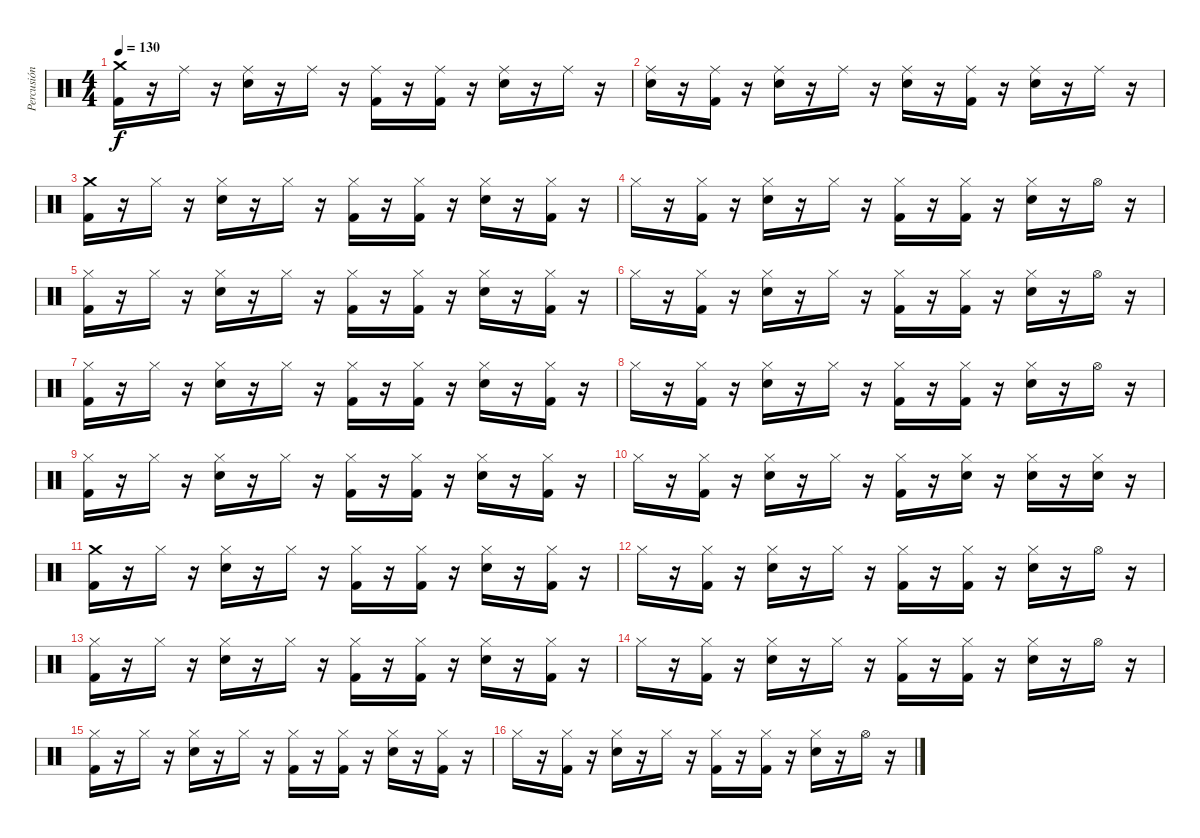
\track ("Percusión" "Percusión") {instrument percussion}
\staff {score}
\articulation defaults
\ts (4 4)
\tempo 130
\clef neutral
\ks c
("Crash medium (hit)" "Kick (hit) 2").16{dy f} r.16 "Ride (middle)".16 r.16 ("Ride (middle)" "Electric Snare (hit)").16 r.16 "Ride (middle)".16 r.16 ("Ride (middle)" "Kick (hit) 2").16 r.16 ("Ride (middle)" "Kick (hit) 2").16 r.16 ("Ride (middle)" "Electric Snare (hit)").16 r.16 "Ride (middle)".16 r.16 |
("Ride (middle)" "Electric Snare (hit)").16 r.16 ("Ride (middle)" "Kick (hit) 2").16 r.16 ("Ride (middle)" "Electric Snare (hit)").16 r.16 "Ride (middle)".16 r.16 ("Ride (middle)" "Electric Snare (hit)").16 r.16 ("Ride (middle)" "Kick (hit) 2").16 r.16 ("Ride (middle)" "Electric Snare (hit)").16 r.16 "Ride (middle)".16 r.16 |
("Crash medium (hit)" "Kick (hit) 2").16 r.16 "Hi-Hat (closed)".16 r.16 ("Hi-Hat (closed)" "Electric Snare (hit)").16 r.16 "Hi-Hat (closed)".16 r.16 ("Hi-Hat (closed)" "Kick (hit) 2").16 r.16 ("Hi-Hat (closed)" "Kick (hit) 2").16 r.16 ("Hi-Hat (closed)" "Electric Snare (hit)").16 r.16 ("Hi-Hat (closed)" "Kick (hit) 2").16 r.16 |
"Hi-Hat (closed)".16 r.16 ("Hi-Hat (closed)" "Kick (hit) 2").16 r.16 ("Hi-Hat (closed)" "Electric Snare (hit)").16 r.16 "Hi-Hat (closed)".16 r.16 ("Hi-Hat (closed)" "Kick (hit) 2").16 r.16 ("Hi-Hat (closed)" "Kick (hit) 2").16 r.16 ("Hi-Hat (closed)" "Electric Snare (hit)").16 r.16 "Hi-Hat (open)".16 r.16 |
("Hi-Hat (closed)" "Kick (hit) 2").16 r.16 "Hi-Hat (closed)".16 r.16 ("Hi-Hat (closed)" "Electric Snare (hit)").16 r.16 "Hi-Hat (closed)".16 r.16 ("Hi-Hat (closed)" "Kick (hit) 2").16 r.16 ("Hi-Hat (closed)" "Kick (hit) 2").16 r.16 ("Hi-Hat (closed)" "Electric Snare (hit)").16 r.16 ("Hi-Hat (closed)" "Kick (hit) 2").16 r.16 |
"Hi-Hat (closed)".16 r.16 ("Hi-Hat (closed)" "Kick (hit) 2").16 r.16 ("Hi-Hat (closed)" "Electric Snare (hit)").16 r.16 "Hi-Hat (closed)".16 r.16 ("Hi-Hat (closed)" "Kick (hit) 2").16 r.16 ("Hi-Hat (closed)" "Kick (hit) 2").16 r.16 ("Hi-Hat (closed)" "Electric Snare (hit)").16 r.16 "Hi-Hat (open)".16 r.16 |
("Hi-Hat (closed)" "Kick (hit) 2").16 r.16 "Hi-Hat (closed)".16 r.16 ("Hi-Hat (closed)" "Electric Snare (hit)").16 r.16 "Hi-Hat (closed)".16 r.16 ("Hi-Hat (closed)" "Kick (hit) 2").16 r.16 ("Hi-Hat (closed)" "Kick (hit) 2").16 r.16 ("Hi-Hat (closed)" "Electric Snare (hit)").16 r.16 ("Hi-Hat (closed)" "Kick (hit) 2").16 r.16 |
"Hi-Hat (closed)".16 r.16 ("Hi-Hat (closed)" "Kick (hit) 2").16 r.16 ("Hi-Hat (closed)" "Electric Snare (hit)").16 r.16 "Hi-Hat (closed)".16 r.16 ("Hi-Hat (closed)" "Kick (hit) 2").16 r.16 ("Hi-Hat (closed)" "Kick (hit) 2").16 r.16 ("Hi-Hat (closed)" "Electric Snare (hit)").16 r.16 "Hi-Hat (open)".16 r.16 |
("Hi-Hat (closed)" "Kick (hit) 2").16 r.16 "Hi-Hat (closed)".16 r.16 ("Hi-Hat (closed)" "Electric Snare (hit)").16 r.16 "Hi-Hat (closed)".16 r.16 ("Hi-Hat (closed)" "Kick (hit) 2").16 r.16 ("Hi-Hat (closed)" "Kick (hit) 2").16 r.16 ("Hi-Hat (closed)" "Electric Snare (hit)").16 r.16 ("Hi-Hat (closed)" "Kick (hit) 2").16 r.16 |
"Hi-Hat (closed)".16 r.16 ("Hi-Hat (closed)" "Kick (hit) 2").16 r.16 ("Hi-Hat (closed)" "Electric Snare (hit)").16 r.16 "Hi-Hat (closed)".16 r.16 ("Hi-Hat (closed)" "Kick (hit) 2").16 r.16 ("Hi-Hat (closed)" "Electric Snare (hit)").16 r.16 ("Hi-Hat (closed)" "Electric Snare (hit)").16 r.16 ("Hi-Hat (closed)" "Electric Snare (hit)").16 r.16 |
("Crash medium (hit)" "Kick (hit) 2").16 r.16 "Hi-Hat (closed)".16 r.16 ("Hi-Hat (closed)" "Electric Snare (hit)").16 r.16 "Hi-Hat (closed)".16 r.16 ("Hi-Hat (closed)" "Kick (hit) 2").16 r.16 ("Hi-Hat (closed)" "Kick (hit) 2").16 r.16 ("Hi-Hat (closed)" "Electric Snare (hit)").16 r.16 ("Hi-Hat (closed)" "Kick (hit) 2").16 r.16 |
"Hi-Hat (closed)".16 r.16 ("Hi-Hat (closed)" "Kick (hit) 2").16 r.16 ("Hi-Hat (closed)" "Electric Snare (hit)").16 r.16 "Hi-Hat (closed)".16 r.16 ("Hi-Hat (closed)" "Kick (hit) 2").16 r.16 ("Hi-Hat (closed)" "Kick (hit) 2").16 r.16 ("Hi-Hat (closed)" "Electric Snare (hit)").16 r.16 "Hi-Hat (open)".16 r.16 |
("Hi-Hat (closed)" "Kick (hit) 2").16 r.16 "Hi-Hat (closed)".16 r.16 ("Hi-Hat (closed)" "Electric Snare (hit)").16 r.16 "Hi-Hat (closed)".16 r.16 ("Hi-Hat (closed)" "Kick (hit) 2").16 r.16 ("Hi-Hat (closed)" "Kick (hit) 2").16 r.16 ("Hi-Hat (closed)" "Electric Snare (hit)").16 r.16 ("Hi-Hat (closed)" "Kick (hit) 2").16 r.16 |
"Hi-Hat (closed)".16 r.16 ("Hi-Hat (closed)" "Kick (hit) 2").16 r.16 ("Hi-Hat (closed)" "Electric Snare (hit)").16 r.16 "Hi-Hat (closed)".16 r.16 ("Hi-Hat (closed)" "Kick (hit) 2").16 r.16 ("Hi-Hat (closed)" "Kick (hit) 2").16 r.16 ("Hi-Hat (closed)" "Electric Snare (hit)").16 r.16 "Hi-Hat (open)".16 r.16 |
("Hi-Hat (closed)" "Kick (hit) 2").16 r.16 "Hi-Hat (closed)".16 r.16 ("Hi-Hat (closed)" "Electric Snare (hit)").16 r.16 "Hi-Hat (closed)".16 r.16 ("Hi-Hat (closed)" "Kick (hit) 2").16 r.16 ("Hi-Hat (closed)" "Kick (hit) 2").16 r.16 ("Hi-Hat (closed)" "Electric Snare (hit)").16 r.16 ("Hi-Hat (closed)" "Kick (hit) 2").16 r.16 |
"Hi-Hat (closed)".16 r.16 ("Hi-Hat (closed)" "Kick (hit) 2").16 r.16 ("Hi-Hat (closed)" "Electric Snare (hit)").16 r.16 "Hi-Hat (closed)".16 r.16 ("Hi-Hat (closed)" "Kick (hit) 2").16 r.16 ("Hi-Hat (closed)" "Kick (hit) 2").16 r.16 ("Hi-Hat (closed)" "Electric Snare (hit)").16 r.16 "Hi-Hat (open)".16 r.16
